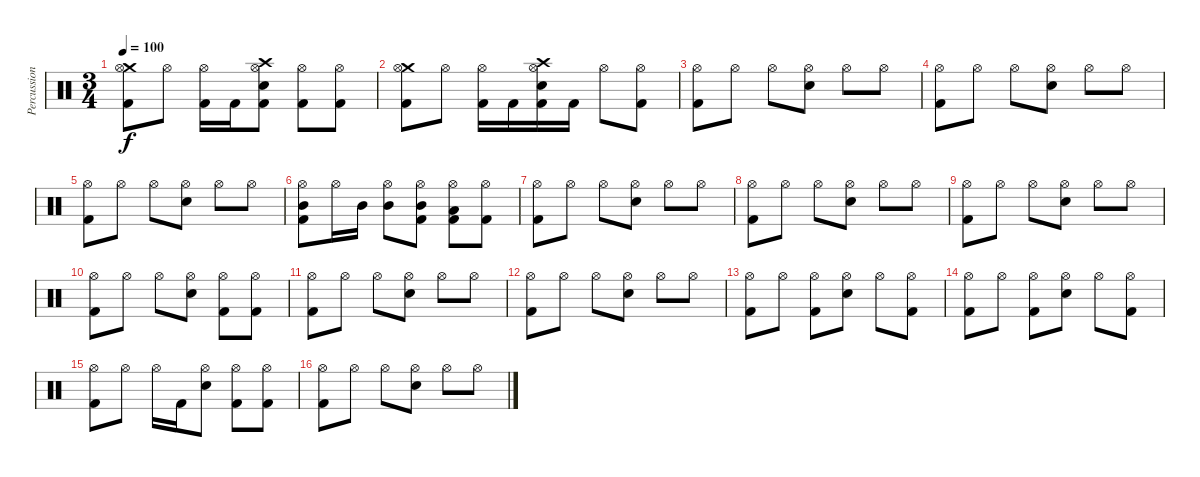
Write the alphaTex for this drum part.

\track ("Percussion" "Percussion") {instrument percussion}
\staff {score}
\articulation defaults
\ts (3 4)
\tempo 100
\clef neutral
\ks c
("Crash medium (hit)" "Hi-Hat (open)" "Kick (hit) 2").8{dy f} "Hi-Hat (open)".8 ("Hi-Hat (open)" "Kick (hit) 2").16 "Kick (hit) 2".16 ("Crash high (hit)" "Hi-Hat (open)" "Electric Snare (hit)" "Kick (hit) 2").8 ("Hi-Hat (open)" "Kick (hit) 2").8 ("Hi-Hat (open)" "Kick (hit) 2").8 |
("Crash medium (hit)" "Hi-Hat (open)" "Kick (hit) 2").8 "Hi-Hat (open)".8 ("Hi-Hat (open)" "Kick (hit) 2").16 "Kick (hit) 2".16 ("Crash high (hit)" "Hi-Hat (open)" "Electric Snare (hit)" "Kick (hit) 2").16 "Kick (hit) 2".16 "Hi-Hat (open)".8 ("Hi-Hat (open)" "Kick (hit) 2").8 |
("Hi-Hat (open)" "Kick (hit) 2").8 "Hi-Hat (open)".8 "Hi-Hat (open)".8 ("Hi-Hat (open)" "Electric Snare (hit)").8 "Hi-Hat (open)".8 "Hi-Hat (open)".8 |
("Hi-Hat (open)" "Kick (hit) 2").8 "Hi-Hat (open)".8 "Hi-Hat (open)".8 ("Hi-Hat (open)" "Electric Snare (hit)").8 "Hi-Hat (open)".8 "Hi-Hat (open)".8 |
("Hi-Hat (open)" "Kick (hit) 2").8 "Hi-Hat (open)".8 "Hi-Hat (open)".8 ("Hi-Hat (open)" "Electric Snare (hit)").8 "Hi-Hat (open)".8 "Hi-Hat (open)".8 |
("Hi-Hat (open)" "Mid Tom (hit)" "Kick (hit) 2").8 "Hi-Hat (open)".16 "Mid Tom (hit)".16 ("Hi-Hat (open)" "Mid Tom (hit)").8 ("Hi-Hat (open)" "Mid Tom (hit)" "Kick (hit) 2").8 ("Hi-Hat (open)" "Low Tom (hit)" "Kick (hit) 2").8 ("Hi-Hat (open)" "Kick (hit) 2").8 |
("Hi-Hat (open)" "Kick (hit) 2").8 "Hi-Hat (open)".8 "Hi-Hat (open)".8 ("Hi-Hat (open)" "Electric Snare (hit)").8 "Hi-Hat (open)".8 "Hi-Hat (open)".8 |
("Hi-Hat (open)" "Kick (hit) 2").8 "Hi-Hat (open)".8 "Hi-Hat (open)".8 ("Hi-Hat (open)" "Electric Snare (hit)").8 "Hi-Hat (open)".8 "Hi-Hat (open)".8 |
("Hi-Hat (open)" "Kick (hit) 2").8 "Hi-Hat (open)".8 "Hi-Hat (open)".8 ("Hi-Hat (open)" "Electric Snare (hit)").8 "Hi-Hat (open)".8 "Hi-Hat (open)".8 |
("Hi-Hat (open)" "Kick (hit) 2").8 "Hi-Hat (open)".8 "Hi-Hat (open)".8 ("Hi-Hat (open)" "Electric Snare (hit)").8 ("Hi-Hat (open)" "Kick (hit) 2").8 ("Hi-Hat (open)" "Kick (hit) 2").8 |
("Hi-Hat (open)" "Kick (hit) 2").8 "Hi-Hat (open)".8 "Hi-Hat (open)".8 ("Hi-Hat (open)" "Electric Snare (hit)").8 "Hi-Hat (open)".8 "Hi-Hat (open)".8 |
("Hi-Hat (open)" "Kick (hit) 2").8 "Hi-Hat (open)".8 "Hi-Hat (open)".8 ("Hi-Hat (open)" "Electric Snare (hit)").8 "Hi-Hat (open)".8 "Hi-Hat (open)".8 |
("Hi-Hat (open)" "Kick (hit) 2").8 "Hi-Hat (open)".8 ("Hi-Hat (open)" "Kick (hit) 2").8 ("Hi-Hat (open)" "Electric Snare (hit)").8 "Hi-Hat (open)".8 ("Hi-Hat (open)" "Kick (hit) 2").8 |
("Hi-Hat (open)" "Kick (hit) 2").8 "Hi-Hat (open)".8 ("Hi-Hat (open)" "Kick (hit) 2").8 ("Hi-Hat (open)" "Electric Snare (hit)").8 "Hi-Hat (open)".8 ("Hi-Hat (open)" "Kick (hit) 2").8 |
("Hi-Hat (open)" "Kick (hit) 2").8 "Hi-Hat (open)".8 "Hi-Hat (open)".16 "Kick (hit) 2".16 ("Hi-Hat (open)" "Electric Snare (hit)").8 ("Hi-Hat (open)" "Kick (hit) 2").8 ("Hi-Hat (open)" "Kick (hit) 2").8 |
("Hi-Hat (open)" "Kick (hit) 2").8 "Hi-Hat (open)".8 "Hi-Hat (open)".8 ("Hi-Hat (open)" "Electric Snare (hit)").8 "Hi-Hat (open)".8 "Hi-Hat (open)".8
